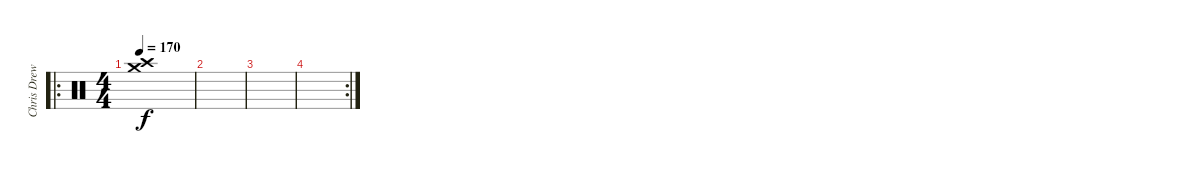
\track ("Chris Drews- Drums" "Chris Drew") {instrument percussion}
\staff {score}
\articulation defaults
\ro
\ts (4 4)
\tempo 170
\clef neutral
\ks c
("Crash high (hit)" "Crash medium (hit)").1{dy f} |
|
|
\rc 2
